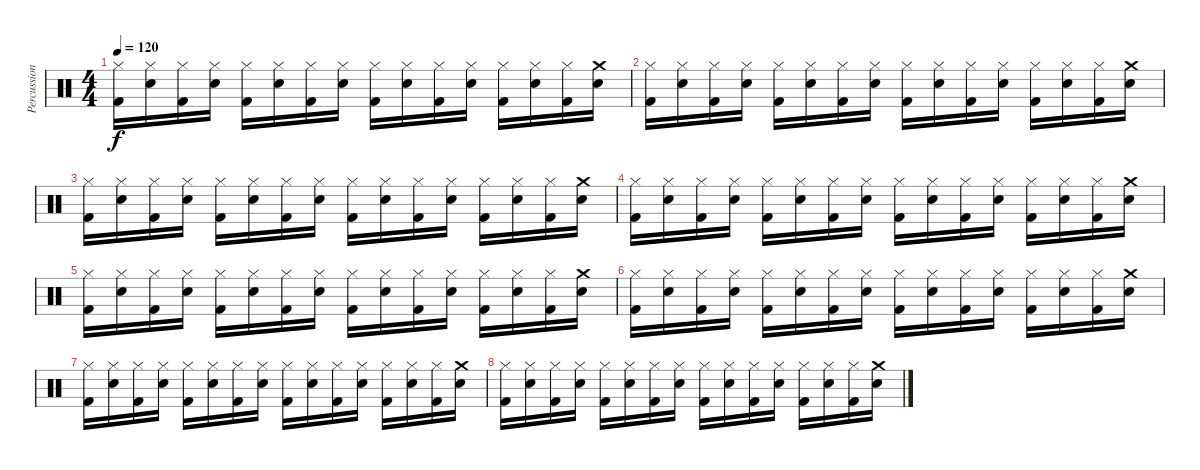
\track ("Percussions" "Percussion") {instrument percussion}
\staff {score}
\articulation defaults
\ts (4 4)
\tempo 120
\clef neutral
\ks c
("Hi-Hat (closed)" "Kick (hit) 2").16{dy f} ("Hi-Hat (closed)" "Electric Snare (hit)").16 ("Hi-Hat (closed)" "Kick (hit) 2").16 ("Hi-Hat (closed)" "Electric Snare (hit)").16 ("Hi-Hat (closed)" "Kick (hit) 2").16 ("Hi-Hat (closed)" "Electric Snare (hit)").16 ("Hi-Hat (closed)" "Kick (hit) 2").16 ("Hi-Hat (closed)" "Electric Snare (hit)").16 ("Hi-Hat (closed)" "Kick (hit) 2").16 ("Hi-Hat (closed)" "Electric Snare (hit)").16 ("Hi-Hat (closed)" "Kick (hit) 2").16 ("Hi-Hat (closed)" "Electric Snare (hit)").16 ("Hi-Hat (closed)" "Kick (hit) 2").16 ("Hi-Hat (closed)" "Electric Snare (hit)").16 ("Hi-Hat (closed)" "Kick (hit) 2").16 ("Crash medium (hit)" "Electric Snare (hit)").16 |
("Hi-Hat (closed)" "Kick (hit) 2").16 ("Hi-Hat (closed)" "Electric Snare (hit)").16 ("Hi-Hat (closed)" "Kick (hit) 2").16 ("Hi-Hat (closed)" "Electric Snare (hit)").16 ("Hi-Hat (closed)" "Kick (hit) 2").16 ("Hi-Hat (closed)" "Electric Snare (hit)").16 ("Hi-Hat (closed)" "Kick (hit) 2").16 ("Hi-Hat (closed)" "Electric Snare (hit)").16 ("Hi-Hat (closed)" "Kick (hit) 2").16 ("Hi-Hat (closed)" "Electric Snare (hit)").16 ("Hi-Hat (closed)" "Kick (hit) 2").16 ("Hi-Hat (closed)" "Electric Snare (hit)").16 ("Hi-Hat (closed)" "Kick (hit) 2").16 ("Hi-Hat (closed)" "Electric Snare (hit)").16 ("Hi-Hat (closed)" "Kick (hit) 2").16 ("Crash medium (hit)" "Electric Snare (hit)").16 |
("Hi-Hat (closed)" "Kick (hit) 2").16 ("Hi-Hat (closed)" "Electric Snare (hit)").16 ("Hi-Hat (closed)" "Kick (hit) 2").16 ("Hi-Hat (closed)" "Electric Snare (hit)").16 ("Hi-Hat (closed)" "Kick (hit) 2").16 ("Hi-Hat (closed)" "Electric Snare (hit)").16 ("Hi-Hat (closed)" "Kick (hit) 2").16 ("Hi-Hat (closed)" "Electric Snare (hit)").16 ("Hi-Hat (closed)" "Kick (hit) 2").16 ("Hi-Hat (closed)" "Electric Snare (hit)").16 ("Hi-Hat (closed)" "Kick (hit) 2").16 ("Hi-Hat (closed)" "Electric Snare (hit)").16 ("Hi-Hat (closed)" "Kick (hit) 2").16 ("Hi-Hat (closed)" "Electric Snare (hit)").16 ("Hi-Hat (closed)" "Kick (hit) 2").16 ("Crash medium (hit)" "Electric Snare (hit)").16 |
("Hi-Hat (closed)" "Kick (hit) 2").16 ("Hi-Hat (closed)" "Electric Snare (hit)").16 ("Hi-Hat (closed)" "Kick (hit) 2").16 ("Hi-Hat (closed)" "Electric Snare (hit)").16 ("Hi-Hat (closed)" "Kick (hit) 2").16 ("Hi-Hat (closed)" "Electric Snare (hit)").16 ("Hi-Hat (closed)" "Kick (hit) 2").16 ("Hi-Hat (closed)" "Electric Snare (hit)").16 ("Hi-Hat (closed)" "Kick (hit) 2").16 ("Hi-Hat (closed)" "Electric Snare (hit)").16 ("Hi-Hat (closed)" "Kick (hit) 2").16 ("Hi-Hat (closed)" "Electric Snare (hit)").16 ("Hi-Hat (closed)" "Kick (hit) 2").16 ("Hi-Hat (closed)" "Electric Snare (hit)").16 ("Hi-Hat (closed)" "Kick (hit) 2").16 ("Crash medium (hit)" "Electric Snare (hit)").16 |
("Hi-Hat (closed)" "Kick (hit) 2").16 ("Hi-Hat (closed)" "Electric Snare (hit)").16 ("Hi-Hat (closed)" "Kick (hit) 2").16 ("Hi-Hat (closed)" "Electric Snare (hit)").16 ("Hi-Hat (closed)" "Kick (hit) 2").16 ("Hi-Hat (closed)" "Electric Snare (hit)").16 ("Hi-Hat (closed)" "Kick (hit) 2").16 ("Hi-Hat (closed)" "Electric Snare (hit)").16 ("Hi-Hat (closed)" "Kick (hit) 2").16 ("Hi-Hat (closed)" "Electric Snare (hit)").16 ("Hi-Hat (closed)" "Kick (hit) 2").16 ("Hi-Hat (closed)" "Electric Snare (hit)").16 ("Hi-Hat (closed)" "Kick (hit) 2").16 ("Hi-Hat (closed)" "Electric Snare (hit)").16 ("Hi-Hat (closed)" "Kick (hit) 2").16 ("Crash medium (hit)" "Electric Snare (hit)").16 |
("Hi-Hat (closed)" "Kick (hit) 2").16 ("Hi-Hat (closed)" "Electric Snare (hit)").16 ("Hi-Hat (closed)" "Kick (hit) 2").16 ("Hi-Hat (closed)" "Electric Snare (hit)").16 ("Hi-Hat (closed)" "Kick (hit) 2").16 ("Hi-Hat (closed)" "Electric Snare (hit)").16 ("Hi-Hat (closed)" "Kick (hit) 2").16 ("Hi-Hat (closed)" "Electric Snare (hit)").16 ("Hi-Hat (closed)" "Kick (hit) 2").16 ("Hi-Hat (closed)" "Electric Snare (hit)").16 ("Hi-Hat (closed)" "Kick (hit) 2").16 ("Hi-Hat (closed)" "Electric Snare (hit)").16 ("Hi-Hat (closed)" "Kick (hit) 2").16 ("Hi-Hat (closed)" "Electric Snare (hit)").16 ("Hi-Hat (closed)" "Kick (hit) 2").16 ("Crash medium (hit)" "Electric Snare (hit)").16 |
("Hi-Hat (closed)" "Kick (hit) 2").16 ("Hi-Hat (closed)" "Electric Snare (hit)").16 ("Hi-Hat (closed)" "Kick (hit) 2").16 ("Hi-Hat (closed)" "Electric Snare (hit)").16 ("Hi-Hat (closed)" "Kick (hit) 2").16 ("Hi-Hat (closed)" "Electric Snare (hit)").16 ("Hi-Hat (closed)" "Kick (hit) 2").16 ("Hi-Hat (closed)" "Electric Snare (hit)").16 ("Hi-Hat (closed)" "Kick (hit) 2").16 ("Hi-Hat (closed)" "Electric Snare (hit)").16 ("Hi-Hat (closed)" "Kick (hit) 2").16 ("Hi-Hat (closed)" "Electric Snare (hit)").16 ("Hi-Hat (closed)" "Kick (hit) 2").16 ("Hi-Hat (closed)" "Electric Snare (hit)").16 ("Hi-Hat (closed)" "Kick (hit) 2").16 ("Crash medium (hit)" "Electric Snare (hit)").16 |
("Hi-Hat (closed)" "Kick (hit) 2").16 ("Hi-Hat (closed)" "Electric Snare (hit)").16 ("Hi-Hat (closed)" "Kick (hit) 2").16 ("Hi-Hat (closed)" "Electric Snare (hit)").16 ("Hi-Hat (closed)" "Kick (hit) 2").16 ("Hi-Hat (closed)" "Electric Snare (hit)").16 ("Hi-Hat (closed)" "Kick (hit) 2").16 ("Hi-Hat (closed)" "Electric Snare (hit)").16 ("Hi-Hat (closed)" "Kick (hit) 2").16 ("Hi-Hat (closed)" "Electric Snare (hit)").16 ("Hi-Hat (closed)" "Kick (hit) 2").16 ("Hi-Hat (closed)" "Electric Snare (hit)").16 ("Hi-Hat (closed)" "Kick (hit) 2").16 ("Hi-Hat (closed)" "Electric Snare (hit)").16 ("Hi-Hat (closed)" "Kick (hit) 2").16 ("Crash medium (hit)" "Electric Snare (hit)").16
